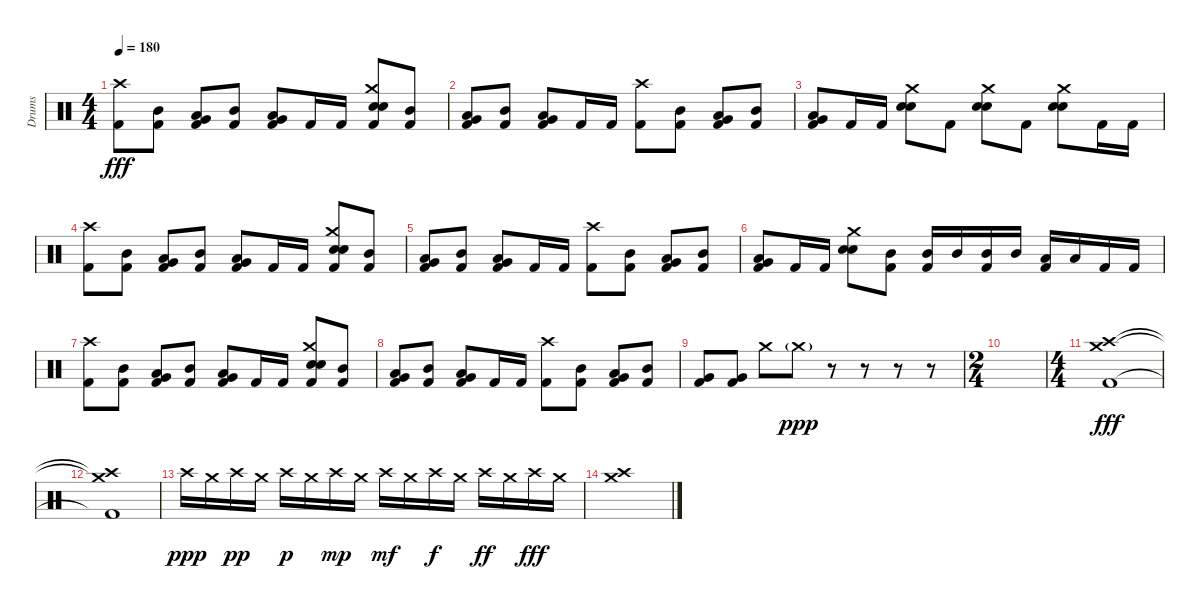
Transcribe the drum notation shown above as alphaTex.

\track ("Drums " "Drums ") {instrument percussion}
\staff {score}
\articulation defaults
\ts (4 4)
\tempo 180
\clef neutral
\ks c
("Crash high (hit)" "Kick (hit) 2").8{dy fff} ("Mid Tom (hit)" "Kick (hit) 2").8 ("Very Low Tom (hit)" "Low Tom (hit)" "Kick (hit) 2").8 ("Mid Tom (hit)" "Kick (hit) 2").8 ("Very Low Tom (hit)" "Low Tom (hit)" "Kick (hit) 2").8 "Kick (hit) 2".16 "Kick (hit) 2".16 ("Crash medium (hit)" "Electric Snare (hit)" "Snare (hit) 2" "Kick (hit) 2").8 ("Mid Tom (hit)" "Kick (hit) 2").8 |
("Very Low Tom (hit)" "Low Tom (hit)" "Kick (hit) 2").8 ("Mid Tom (hit)" "Kick (hit) 2").8 ("Very Low Tom (hit)" "Low Tom (hit)" "Kick (hit) 2").8 "Kick (hit) 2".16 "Kick (hit) 2".16 ("Crash high (hit)" "Kick (hit) 2").8 ("Mid Tom (hit)" "Kick (hit) 2").8 ("Low Tom (hit)" "Very Low Tom (hit)" "Kick (hit) 2").8 ("Mid Tom (hit)" "Kick (hit) 2").8 |
("Low Tom (hit)" "Very Low Tom (hit)" "Kick (hit) 2").8 "Kick (hit) 2".16 "Kick (hit) 2".16 ("Crash medium (hit)" "Electric Snare (hit)" "Snare (hit) 2").8 "Kick (hit) 2".8 ("Crash medium (hit)" "Electric Snare (hit)" "Snare (hit) 2").8 "Kick (hit) 2".8 ("Crash medium (hit)" "Electric Snare (hit)" "Snare (hit) 2").8 "Kick (hit) 2".16 "Kick (hit) 2".16 |
("Crash high (hit)" "Kick (hit) 2").8 ("Mid Tom (hit)" "Kick (hit) 2").8 ("Very Low Tom (hit)" "Low Tom (hit)" "Kick (hit) 2").8 ("Mid Tom (hit)" "Kick (hit) 2").8 ("Very Low Tom (hit)" "Low Tom (hit)" "Kick (hit) 2").8 "Kick (hit) 2".16 "Kick (hit) 2".16 ("Crash medium (hit)" "Electric Snare (hit)" "Snare (hit) 2" "Kick (hit) 2").8 ("Mid Tom (hit)" "Kick (hit) 2").8 |
("Very Low Tom (hit)" "Low Tom (hit)" "Kick (hit) 2").8 ("Mid Tom (hit)" "Kick (hit) 2").8 ("Very Low Tom (hit)" "Low Tom (hit)" "Kick (hit) 2").8 "Kick (hit) 2".16 "Kick (hit) 2".16 ("Crash high (hit)" "Kick (hit) 2").8 ("Mid Tom (hit)" "Kick (hit) 2").8 ("Low Tom (hit)" "Very Low Tom (hit)" "Kick (hit) 2").8 ("Mid Tom (hit)" "Kick (hit) 2").8 |
("Low Tom (hit)" "Very Low Tom (hit)" "Kick (hit) 2").8 "Kick (hit) 2".16 "Kick (hit) 2".16 ("Crash medium (hit)" "Electric Snare (hit)" "Snare (hit) 2").8 ("Mid Tom (hit)" "Kick (hit) 2").8 ("Mid Tom (hit)" "Kick (hit) 2").16 "Mid Tom (hit)".16 ("Mid Tom (hit)" "Kick (hit) 2").16 "Mid Tom (hit)".16 ("Low Tom (hit)" "Kick (hit) 2").16 "Low Tom (hit)".16 "Kick (hit) 2".16 "Kick (hit) 2".16 |
("Crash high (hit)" "Kick (hit) 2").8 ("Mid Tom (hit)" "Kick (hit) 2").8 ("Very Low Tom (hit)" "Low Tom (hit)" "Kick (hit) 2").8 ("Mid Tom (hit)" "Kick (hit) 2").8 ("Very Low Tom (hit)" "Low Tom (hit)" "Kick (hit) 2").8 "Kick (hit) 2".16 "Kick (hit) 2".16 ("Crash medium (hit)" "Electric Snare (hit)" "Snare (hit) 2" "Kick (hit) 2").8 ("Mid Tom (hit)" "Kick (hit) 2").8 |
("Very Low Tom (hit)" "Low Tom (hit)" "Kick (hit) 2").8 ("Mid Tom (hit)" "Kick (hit) 2").8 ("Very Low Tom (hit)" "Low Tom (hit)" "Kick (hit) 2").8 "Kick (hit) 2".16 "Kick (hit) 2".16 ("Crash high (hit)" "Kick (hit) 2").8 ("Mid Tom (hit)" "Kick (hit) 2").8 ("Low Tom (hit)" "Very Low Tom (hit)" "Kick (hit) 2").8 ("Mid Tom (hit)" "Kick (hit) 2").8 |
("Very Low Tom (hit)" "Kick (hit) 2").8 ("Very Low Tom (hit)" "Kick (hit) 2").8 "Crash medium (hit)".8 "Crash medium (hit)"{g}.8{dy ppp} r.8 r.8 r.8 r.8 |
\ts (2 4)
|
\ts (4 4)
("Crash high (hit)" "Crash medium (hit)" "Kick (hit) 2").1{dy fff} |
("Crash high (hit)"{t} "Crash medium (hit)"{t} "Kick (hit) 2"{t}).1 |
"Crash high (hit)".16{dy ppp} "Crash medium (hit)".16 "Crash high (hit)".16{dy pp} "Crash medium (hit)".16 "Crash high (hit)".16{dy p} "Crash medium (hit)".16 "Crash high (hit)".16{dy mp} "Crash medium (hit)".16 "Crash high (hit)".16{dy mf} "Crash medium (hit)".16 "Crash high (hit)".16{dy f} "Crash medium (hit)".16 "Crash high (hit)".16{dy ff} "Crash medium (hit)".16 "Crash high (hit)".16{dy fff} "Crash medium (hit)".16 |
("Crash high (hit)" "Crash medium (hit)").1
